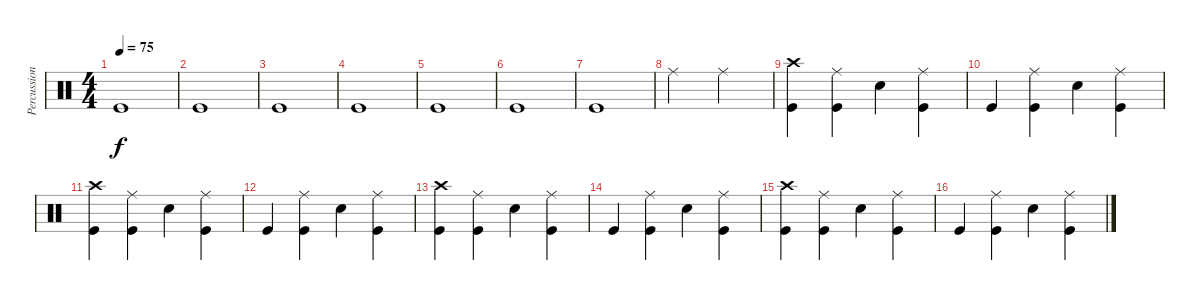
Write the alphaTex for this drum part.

\track ("Percussion" "Percussion") {instrument percussion}
\staff {score}
\articulation defaults
\ts (4 4)
\tempo 75
\clef neutral
\ks c "Kick (hit)".1{dy f}
|
"Kick (hit)".1 |
"Kick (hit)".1 |
"Kick (hit)".1 |
"Kick (hit)".1 |
"Kick (hit)".1 |
"Kick (hit)".1 |
"Ride (middle)".2 "Ride (middle)".2 |
("Crash high (hit)" "Kick (hit)").4 ("Ride (middle)" "Kick (hit)").4 "Snare (hit) 2".4 ("Ride (middle)" "Kick (hit)").4 |
"Kick (hit)".4 ("Ride (middle)" "Kick (hit)").4 "Snare (hit) 2".4 ("Ride (middle)" "Kick (hit)").4 |
("Crash high (hit)" "Kick (hit)").4 ("Ride (middle)" "Kick (hit)").4 "Snare (hit) 2".4 ("Ride (middle)" "Kick (hit)").4 |
"Kick (hit)".4 ("Ride (middle)" "Kick (hit)").4 "Snare (hit) 2".4 ("Ride (middle)" "Kick (hit)").4 |
("Crash high (hit)" "Kick (hit)").4 ("Ride (middle)" "Kick (hit)").4 "Snare (hit) 2".4 ("Ride (middle)" "Kick (hit)").4 |
"Kick (hit)".4 ("Ride (middle)" "Kick (hit)").4 "Snare (hit) 2".4 ("Ride (middle)" "Kick (hit)").4 |
("Crash high (hit)" "Kick (hit)").4 ("Ride (middle)" "Kick (hit)").4 "Snare (hit) 2".4 ("Ride (middle)" "Kick (hit)").4 |
"Kick (hit)".4 ("Ride (middle)" "Kick (hit)").4 "Snare (hit) 2".4 ("Ride (middle)" "Kick (hit)").4
